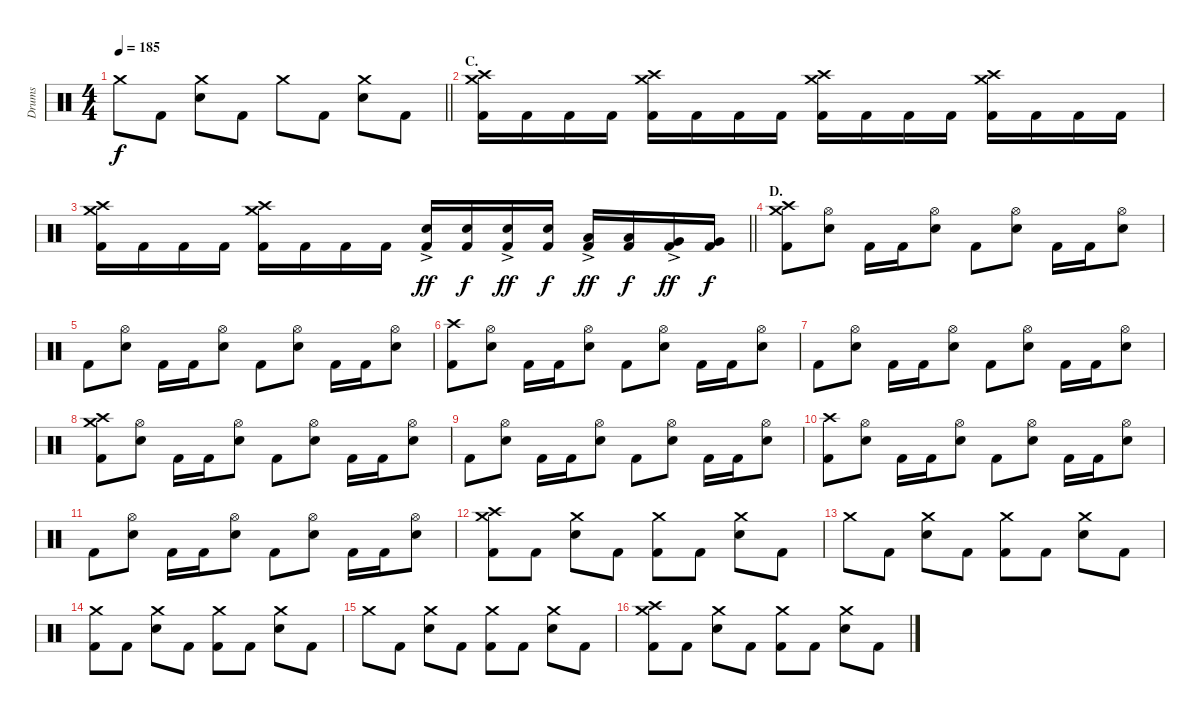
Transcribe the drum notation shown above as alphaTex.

\track ("Drums" "Drums") {instrument percussion}
\staff {score}
\articulation defaults
\ts (4 4)
\tempo 185
\clef neutral
\barLineRight lightlight
\ks c "Crash medium (hit)".8{dy f} "Kick (hit) 2".8
("Crash medium (hit)" "Electric Snare (hit)").8 "Kick (hit) 2".8 "Crash medium (hit)".8 "Kick (hit) 2".8 ("Crash medium (hit)" "Electric Snare (hit)").8 "Kick (hit) 2".8 |
\section ("" "C.")
("Crash medium (hit)" "Crash high (hit)" "Kick (hit) 2").16 "Kick (hit) 2".16 "Kick (hit) 2".16 "Kick (hit) 2".16 ("Crash medium (hit)" "Crash high (hit)" "Kick (hit) 2").16 "Kick (hit) 2".16 "Kick (hit) 2".16 "Kick (hit) 2".16 ("Crash medium (hit)" "Crash high (hit)" "Kick (hit) 2").16 "Kick (hit) 2".16 "Kick (hit) 2".16 "Kick (hit) 2".16 ("Crash medium (hit)" "Crash high (hit)" "Kick (hit) 2").16 "Kick (hit) 2".16 "Kick (hit) 2".16 "Kick (hit) 2".16 |
\barLineRight lightlight
("Crash medium (hit)" "Crash high (hit)" "Kick (hit) 2").16 "Kick (hit) 2".16 "Kick (hit) 2".16 "Kick (hit) 2".16 ("Crash medium (hit)" "Crash high (hit)" "Kick (hit) 2").16 "Kick (hit) 2".16 "Kick (hit) 2".16 "Kick (hit) 2".16 ("Electric Snare (hit)"{ac} "Kick (hit) 2").16{dy ff} ("Electric Snare (hit)" "Kick (hit) 2").16{dy f} ("Electric Snare (hit)"{ac} "Kick (hit) 2").16{dy ff} ("Electric Snare (hit)" "Kick (hit) 2").16{dy f} ("Low Tom (hit)"{ac} "Kick (hit) 2").16{dy ff} ("Low Tom (hit)" "Kick (hit) 2").16{dy f} ("Very Low Tom (hit)"{ac} "Kick (hit) 2").16{dy ff} ("Very Low Tom (hit)" "Kick (hit) 2").16{dy f} |
\section ("" "D.")
("Crash medium (hit)" "Crash high (hit)" "Kick (hit) 2").8 ("Hi-Hat (open)" "Electric Snare (hit)").8 "Kick (hit) 2".16 "Kick (hit) 2".16 ("Hi-Hat (open)" "Electric Snare (hit)").8 "Kick (hit) 2".8 ("Hi-Hat (open)" "Electric Snare (hit)").8 "Kick (hit) 2".16 "Kick (hit) 2".16 ("Hi-Hat (open)" "Electric Snare (hit)").8 |
"Kick (hit) 2".8 ("Hi-Hat (open)" "Electric Snare (hit)").8 "Kick (hit) 2".16 "Kick (hit) 2".16 ("Hi-Hat (open)" "Electric Snare (hit)").8 "Kick (hit) 2".8 ("Hi-Hat (open)" "Electric Snare (hit)").8 "Kick (hit) 2".16 "Kick (hit) 2".16 ("Hi-Hat (open)" "Electric Snare (hit)").8 |
("Crash high (hit)" "Kick (hit) 2").8 ("Hi-Hat (open)" "Electric Snare (hit)").8 "Kick (hit) 2".16 "Kick (hit) 2".16 ("Hi-Hat (open)" "Electric Snare (hit)").8 "Kick (hit) 2".8 ("Hi-Hat (open)" "Electric Snare (hit)").8 "Kick (hit) 2".16 "Kick (hit) 2".16 ("Hi-Hat (open)" "Electric Snare (hit)").8 |
"Kick (hit) 2".8 ("Hi-Hat (open)" "Electric Snare (hit)").8 "Kick (hit) 2".16 "Kick (hit) 2".16 ("Hi-Hat (open)" "Electric Snare (hit)").8 "Kick (hit) 2".8 ("Hi-Hat (open)" "Electric Snare (hit)").8 "Kick (hit) 2".16 "Kick (hit) 2".16 ("Hi-Hat (open)" "Electric Snare (hit)").8 |
("Crash medium (hit)" "Crash high (hit)" "Kick (hit) 2").8 ("Hi-Hat (open)" "Electric Snare (hit)").8 "Kick (hit) 2".16 "Kick (hit) 2".16 ("Hi-Hat (open)" "Electric Snare (hit)").8 "Kick (hit) 2".8 ("Hi-Hat (open)" "Electric Snare (hit)").8 "Kick (hit) 2".16 "Kick (hit) 2".16 ("Hi-Hat (open)" "Electric Snare (hit)").8 |
"Kick (hit) 2".8 ("Hi-Hat (open)" "Electric Snare (hit)").8 "Kick (hit) 2".16 "Kick (hit) 2".16 ("Hi-Hat (open)" "Electric Snare (hit)").8 "Kick (hit) 2".8 ("Hi-Hat (open)" "Electric Snare (hit)").8 "Kick (hit) 2".16 "Kick (hit) 2".16 ("Hi-Hat (open)" "Electric Snare (hit)").8 |
("Crash high (hit)" "Kick (hit) 2").8 ("Hi-Hat (open)" "Electric Snare (hit)").8 "Kick (hit) 2".16 "Kick (hit) 2".16 ("Hi-Hat (open)" "Electric Snare (hit)").8 "Kick (hit) 2".8 ("Hi-Hat (open)" "Electric Snare (hit)").8 "Kick (hit) 2".16 "Kick (hit) 2".16 ("Hi-Hat (open)" "Electric Snare (hit)").8 |
"Kick (hit) 2".8 ("Hi-Hat (open)" "Electric Snare (hit)").8 "Kick (hit) 2".16 "Kick (hit) 2".16 ("Hi-Hat (open)" "Electric Snare (hit)").8 "Kick (hit) 2".8 ("Hi-Hat (open)" "Electric Snare (hit)").8 "Kick (hit) 2".16 "Kick (hit) 2".16 ("Hi-Hat (open)" "Electric Snare (hit)").8 |
("Crash medium (hit)" "Crash high (hit)" "Kick (hit) 2").8 "Kick (hit) 2".8 ("Crash medium (hit)" "Electric Snare (hit)").8 "Kick (hit) 2".8 ("Crash medium (hit)" "Kick (hit) 2").8 "Kick (hit) 2".8 ("Crash medium (hit)" "Electric Snare (hit)").8 "Kick (hit) 2".8 |
"Crash medium (hit)".8 "Kick (hit) 2".8 ("Crash medium (hit)" "Electric Snare (hit)").8 "Kick (hit) 2".8 ("Crash medium (hit)" "Kick (hit) 2").8 "Kick (hit) 2".8 ("Crash medium (hit)" "Electric Snare (hit)").8 "Kick (hit) 2".8 |
("Crash medium (hit)" "Kick (hit) 2").8 "Kick (hit) 2".8 ("Crash medium (hit)" "Electric Snare (hit)").8 "Kick (hit) 2".8 ("Crash medium (hit)" "Kick (hit) 2").8 "Kick (hit) 2".8 ("Crash medium (hit)" "Electric Snare (hit)").8 "Kick (hit) 2".8 |
"Crash medium (hit)".8 "Kick (hit) 2".8 ("Crash medium (hit)" "Electric Snare (hit)").8 "Kick (hit) 2".8 ("Crash medium (hit)" "Kick (hit) 2").8 "Kick (hit) 2".8 ("Crash medium (hit)" "Electric Snare (hit)").8 "Kick (hit) 2".8 |
("Crash medium (hit)" "Crash high (hit)" "Kick (hit) 2").8 "Kick (hit) 2".8 ("Crash medium (hit)" "Electric Snare (hit)").8 "Kick (hit) 2".8 ("Crash medium (hit)" "Kick (hit) 2").8 "Kick (hit) 2".8 ("Crash medium (hit)" "Electric Snare (hit)").8 "Kick (hit) 2".8
